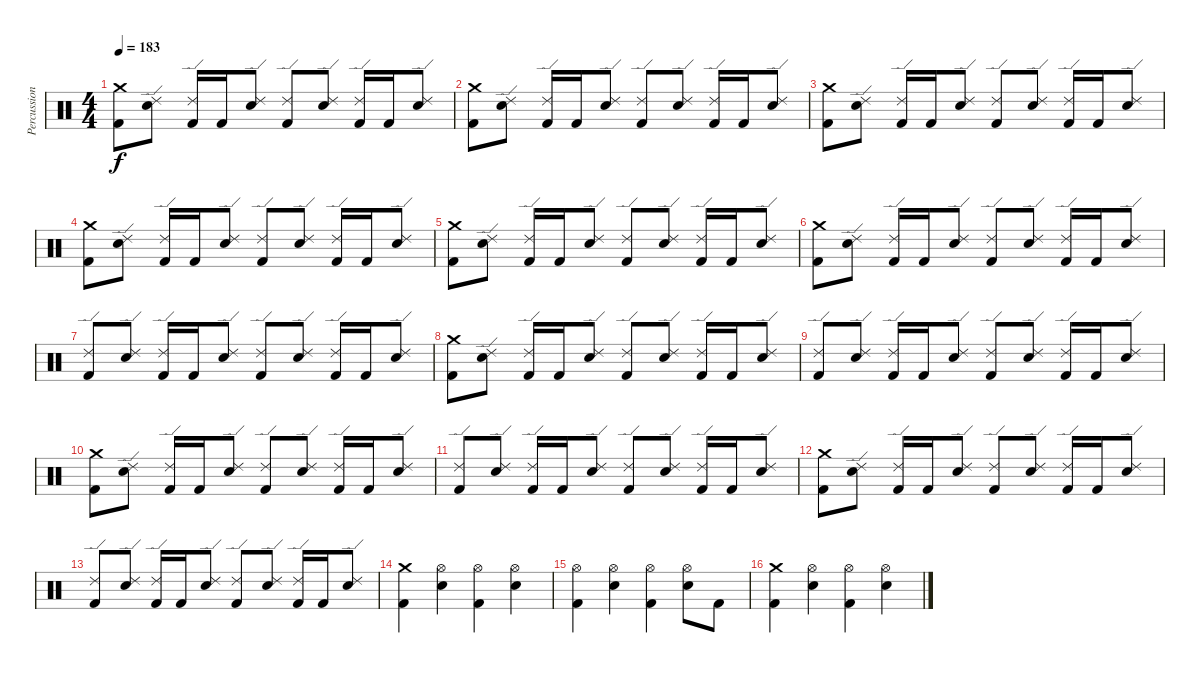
\track ("Percussion" "Percussion") {instrument percussion}
\staff {score}
\articulation defaults
\ts (4 4)
\tempo 183
\clef neutral
\ks c
("Crash medium (hit)" "Kick (hit) 2").8{dy f} ("Ride (edge) 2" "Snare (hit) 2").8 ("Ride (edge) 2" "Kick (hit) 2").16 "Kick (hit) 2".16 ("Ride (edge) 2" "Snare (hit) 2").8 ("Ride (edge) 2" "Kick (hit) 2").8 ("Ride (edge) 2" "Snare (hit) 2").8 ("Ride (edge) 2" "Kick (hit) 2").16 "Kick (hit) 2".16 ("Ride (edge) 2" "Snare (hit) 2").8 |
("Crash medium (hit)" "Kick (hit) 2").8 ("Ride (edge) 2" "Snare (hit) 2").8 ("Ride (edge) 2" "Kick (hit) 2").16 "Kick (hit) 2".16 ("Ride (edge) 2" "Snare (hit) 2").8 ("Ride (edge) 2" "Kick (hit) 2").8 ("Ride (edge) 2" "Snare (hit) 2").8 ("Ride (edge) 2" "Kick (hit) 2").16 "Kick (hit) 2".16 ("Ride (edge) 2" "Snare (hit) 2").8 |
("Crash medium (hit)" "Kick (hit) 2").8 ("Ride (edge) 2" "Snare (hit) 2").8 ("Ride (edge) 2" "Kick (hit) 2").16 "Kick (hit) 2".16 ("Ride (edge) 2" "Snare (hit) 2").8 ("Ride (edge) 2" "Kick (hit) 2").8 ("Ride (edge) 2" "Snare (hit) 2").8 ("Ride (edge) 2" "Kick (hit) 2").16 "Kick (hit) 2".16 ("Ride (edge) 2" "Snare (hit) 2").8 |
("Crash medium (hit)" "Kick (hit) 2").8 ("Ride (edge) 2" "Snare (hit) 2").8 ("Ride (edge) 2" "Kick (hit) 2").16 "Kick (hit) 2".16 ("Ride (edge) 2" "Snare (hit) 2").8 ("Ride (edge) 2" "Kick (hit) 2").8 ("Ride (edge) 2" "Snare (hit) 2").8 ("Ride (edge) 2" "Kick (hit) 2").16 "Kick (hit) 2".16 ("Ride (edge) 2" "Snare (hit) 2").8 |
("Crash medium (hit)" "Kick (hit) 2").8 ("Ride (edge) 2" "Snare (hit) 2").8 ("Ride (edge) 2" "Kick (hit) 2").16 "Kick (hit) 2".16 ("Ride (edge) 2" "Snare (hit) 2").8 ("Ride (edge) 2" "Kick (hit) 2").8 ("Ride (edge) 2" "Snare (hit) 2").8 ("Ride (edge) 2" "Kick (hit) 2").16 "Kick (hit) 2".16 ("Ride (edge) 2" "Snare (hit) 2").8 |
("Crash medium (hit)" "Kick (hit) 2").8 ("Ride (edge) 2" "Snare (hit) 2").8 ("Ride (edge) 2" "Kick (hit) 2").16 "Kick (hit) 2".16 ("Ride (edge) 2" "Snare (hit) 2").8 ("Ride (edge) 2" "Kick (hit) 2").8 ("Ride (edge) 2" "Snare (hit) 2").8 ("Ride (edge) 2" "Kick (hit) 2").16 "Kick (hit) 2".16 ("Ride (edge) 2" "Snare (hit) 2").8 |
("Ride (edge) 2" "Kick (hit) 2").8 ("Ride (edge) 2" "Snare (hit) 2").8 ("Ride (edge) 2" "Kick (hit) 2").16 "Kick (hit) 2".16 ("Ride (edge) 2" "Snare (hit) 2").8 ("Ride (edge) 2" "Kick (hit) 2").8 ("Ride (edge) 2" "Snare (hit) 2").8 ("Ride (edge) 2" "Kick (hit) 2").16 "Kick (hit) 2".16 ("Ride (edge) 2" "Snare (hit) 2").8 |
("Crash medium (hit)" "Kick (hit) 2").8 ("Ride (edge) 2" "Snare (hit) 2").8 ("Ride (edge) 2" "Kick (hit) 2").16 "Kick (hit) 2".16 ("Ride (edge) 2" "Snare (hit) 2").8 ("Ride (edge) 2" "Kick (hit) 2").8 ("Ride (edge) 2" "Snare (hit) 2").8 ("Ride (edge) 2" "Kick (hit) 2").16 "Kick (hit) 2".16 ("Ride (edge) 2" "Snare (hit) 2").8 |
("Ride (edge) 2" "Kick (hit) 2").8 ("Ride (edge) 2" "Snare (hit) 2").8 ("Ride (edge) 2" "Kick (hit) 2").16 "Kick (hit) 2".16 ("Ride (edge) 2" "Snare (hit) 2").8 ("Ride (edge) 2" "Kick (hit) 2").8 ("Ride (edge) 2" "Snare (hit) 2").8 ("Ride (edge) 2" "Kick (hit) 2").16 "Kick (hit) 2".16 ("Ride (edge) 2" "Snare (hit) 2").8 |
("Crash medium (hit)" "Kick (hit) 2").8 ("Ride (edge) 2" "Snare (hit) 2").8 ("Ride (edge) 2" "Kick (hit) 2").16 "Kick (hit) 2".16 ("Ride (edge) 2" "Snare (hit) 2").8 ("Ride (edge) 2" "Kick (hit) 2").8 ("Ride (edge) 2" "Snare (hit) 2").8 ("Ride (edge) 2" "Kick (hit) 2").16 "Kick (hit) 2".16 ("Ride (edge) 2" "Snare (hit) 2").8 |
("Ride (edge) 2" "Kick (hit) 2").8 ("Ride (edge) 2" "Snare (hit) 2").8 ("Ride (edge) 2" "Kick (hit) 2").16 "Kick (hit) 2".16 ("Ride (edge) 2" "Snare (hit) 2").8 ("Ride (edge) 2" "Kick (hit) 2").8 ("Ride (edge) 2" "Snare (hit) 2").8 ("Ride (edge) 2" "Kick (hit) 2").16 "Kick (hit) 2".16 ("Ride (edge) 2" "Snare (hit) 2").8 |
("Crash medium (hit)" "Kick (hit) 2").8 ("Ride (edge) 2" "Snare (hit) 2").8 ("Ride (edge) 2" "Kick (hit) 2").16 "Kick (hit) 2".16 ("Ride (edge) 2" "Snare (hit) 2").8 ("Ride (edge) 2" "Kick (hit) 2").8 ("Ride (edge) 2" "Snare (hit) 2").8 ("Ride (edge) 2" "Kick (hit) 2").16 "Kick (hit) 2".16 ("Ride (edge) 2" "Snare (hit) 2").8 |
("Ride (edge) 2" "Kick (hit) 2").8 ("Ride (edge) 2" "Snare (hit) 2").8 ("Ride (edge) 2" "Kick (hit) 2").16 "Kick (hit) 2".16 ("Ride (edge) 2" "Snare (hit) 2").8 ("Ride (edge) 2" "Kick (hit) 2").8 ("Ride (edge) 2" "Snare (hit) 2").8 ("Ride (edge) 2" "Kick (hit) 2").16 "Kick (hit) 2".16 ("Ride (edge) 2" "Snare (hit) 2").8 |
("Crash medium (hit)" "Kick (hit) 2").4 ("Hi-Hat (open)" "Snare (hit) 2").4 ("Hi-Hat (open)" "Kick (hit) 2").4 ("Hi-Hat (open)" "Snare (hit) 2").4 |
("Hi-Hat (open)" "Kick (hit) 2").4 ("Hi-Hat (open)" "Snare (hit) 2").4 ("Hi-Hat (open)" "Kick (hit) 2").4 ("Hi-Hat (open)" "Snare (hit) 2").8 "Kick (hit) 2".8 |
("Crash medium (hit)" "Kick (hit) 2").4 ("Hi-Hat (open)" "Snare (hit) 2").4 ("Hi-Hat (open)" "Kick (hit) 2").4 ("Hi-Hat (open)" "Snare (hit) 2").4
